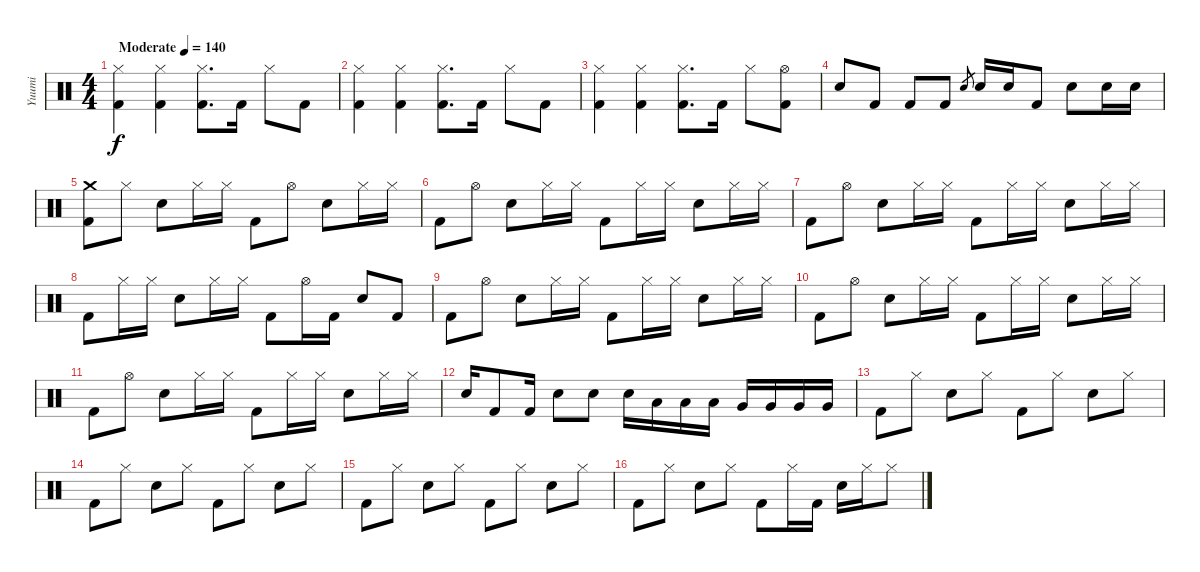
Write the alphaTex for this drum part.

\track ("Yuumi" "Yuumi") {instrument percussion}
\staff {score}
\articulation defaults
\ts (4 4)
\tempo (140 "Moderate")
\clef neutral
\ks c
("Hi-Hat (closed)" "Kick (hit) 2").4{dy f} ("Hi-Hat (closed)" "Kick (hit) 2").4 ("Hi-Hat (closed)" "Kick (hit) 2").8{d} "Kick (hit) 2".16 "Hi-Hat (closed)".8 "Kick (hit) 2".8 |
("Hi-Hat (closed)" "Kick (hit) 2").4 ("Hi-Hat (closed)" "Kick (hit) 2").4 ("Hi-Hat (closed)" "Kick (hit) 2").8{d} "Kick (hit) 2".16 "Hi-Hat (closed)".8 "Kick (hit) 2".8 |
("Hi-Hat (closed)" "Kick (hit) 2").4 ("Hi-Hat (closed)" "Kick (hit) 2").4 ("Hi-Hat (closed)" "Kick (hit) 2").8{d} "Kick (hit) 2".16 "Hi-Hat (closed)".8 ("Hi-Hat (open)" "Kick (hit) 2").8 |
"Electric Snare (hit)".8 "Kick (hit) 2".8 "Kick (hit) 2".8 "Kick (hit) 2".8 "Electric Snare (hit)".8{gr} "Electric Snare (hit)".16 "Electric Snare (hit)".16 "Kick (hit) 2".8 "Electric Snare (hit)".8 "Electric Snare (hit)".16 "Electric Snare (hit)".16 |
("Crash medium (hit)" "Kick (hit) 2").8 "Hi-Hat (closed)".8 "Electric Snare (hit)".8 "Hi-Hat (closed)".16 "Hi-Hat (closed)".16 "Kick (hit) 2".8 "Hi-Hat (open)".8 "Electric Snare (hit)".8 "Hi-Hat (closed)".16 "Hi-Hat (closed)".16 |
"Kick (hit) 2".8 "Hi-Hat (open)".8 "Electric Snare (hit)".8 "Hi-Hat (closed)".16 "Hi-Hat (closed)".16 "Kick (hit) 2".8 "Hi-Hat (closed)".16 "Hi-Hat (closed)".16 "Electric Snare (hit)".8 "Hi-Hat (closed)".16 "Hi-Hat (closed)".16 |
"Kick (hit) 2".8 "Hi-Hat (open)".8 "Electric Snare (hit)".8 "Hi-Hat (closed)".16 "Hi-Hat (closed)".16 "Kick (hit) 2".8 "Hi-Hat (closed)".16 "Hi-Hat (closed)".16 "Electric Snare (hit)".8 "Hi-Hat (closed)".16 "Hi-Hat (closed)".16 |
"Kick (hit) 2".8 "Hi-Hat (closed)".16 "Hi-Hat (closed)".16 "Electric Snare (hit)".8 "Hi-Hat (closed)".16 "Hi-Hat (closed)".16 "Kick (hit) 2".8 "Hi-Hat (open)".16 "Kick (hit) 2".16 "Electric Snare (hit)".8 "Kick (hit) 2".8 |
"Kick (hit) 2".8 "Hi-Hat (open)".8 "Electric Snare (hit)".8 "Hi-Hat (closed)".16 "Hi-Hat (closed)".16 "Kick (hit) 2".8 "Hi-Hat (closed)".16 "Hi-Hat (closed)".16 "Electric Snare (hit)".8 "Hi-Hat (closed)".16 "Hi-Hat (closed)".16 |
"Kick (hit) 2".8 "Hi-Hat (open)".8 "Electric Snare (hit)".8 "Hi-Hat (closed)".16 "Hi-Hat (closed)".16 "Kick (hit) 2".8 "Hi-Hat (closed)".16 "Hi-Hat (closed)".16 "Electric Snare (hit)".8 "Hi-Hat (closed)".16 "Hi-Hat (closed)".16 |
"Kick (hit) 2".8 "Hi-Hat (open)".8 "Electric Snare (hit)".8 "Hi-Hat (closed)".16 "Hi-Hat (closed)".16 "Kick (hit) 2".8 "Hi-Hat (closed)".16 "Hi-Hat (closed)".16 "Electric Snare (hit)".8 "Hi-Hat (closed)".16 "Hi-Hat (closed)".16 |
"Electric Snare (hit)".16 "Kick (hit) 2".8 "Kick (hit) 2".16 "Electric Snare (hit)".8 "Electric Snare (hit)".8 "Electric Snare (hit)".16 "Low Tom (hit)".16 "Low Tom (hit)".16 "Low Tom (hit)".16 "Very Low Tom (hit)".16 "Very Low Tom (hit)".16 "Very Low Tom (hit)".16 "Very Low Tom (hit)".16 |
"Kick (hit) 2".8 "Hi-Hat (closed)".8 "Electric Snare (hit)".8 "Hi-Hat (closed)".8 "Kick (hit) 2".8 "Hi-Hat (closed)".8 "Electric Snare (hit)".8 "Hi-Hat (closed)".8 |
"Kick (hit) 2".8 "Hi-Hat (closed)".8 "Electric Snare (hit)".8 "Hi-Hat (closed)".8 "Kick (hit) 2".8 "Hi-Hat (closed)".8 "Electric Snare (hit)".8 "Hi-Hat (closed)".8 |
"Kick (hit) 2".8 "Hi-Hat (closed)".8 "Electric Snare (hit)".8 "Hi-Hat (closed)".8 "Kick (hit) 2".8 "Hi-Hat (closed)".8 "Electric Snare (hit)".8 "Hi-Hat (closed)".8 |
"Kick (hit) 2".8 "Hi-Hat (closed)".8 "Electric Snare (hit)".8 "Hi-Hat (closed)".8 "Kick (hit) 2".8 "Hi-Hat (closed)".16 "Kick (hit) 2".16 "Electric Snare (hit)".16 "Hi-Hat (closed)".16 "Hi-Hat (closed)".8
